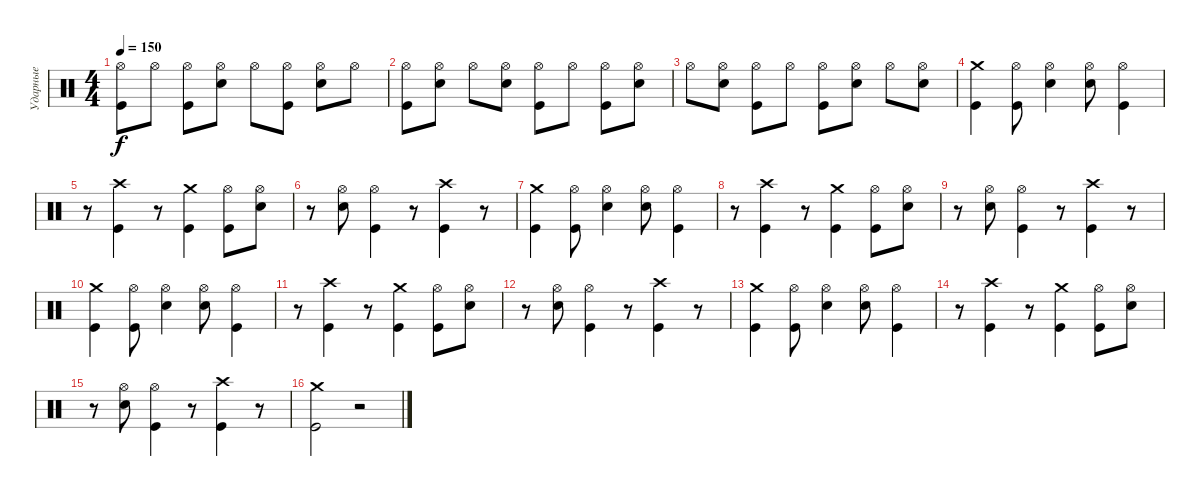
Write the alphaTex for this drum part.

\track ("Ударные" "Ударные") {instrument percussion}
\staff {score}
\articulation defaults
\ts (4 4)
\tempo 150
\clef neutral
\ks c
("Kick (hit)" "Hi-Hat (open)").8{dy f} "Hi-Hat (open)".8 ("Kick (hit)" "Hi-Hat (open)").8 ("Electric Snare (hit)" "Hi-Hat (open)").8 "Hi-Hat (open)".8 ("Kick (hit)" "Hi-Hat (open)").8 ("Electric Snare (hit)" "Hi-Hat (open)").8 "Hi-Hat (open)".8 |
("Kick (hit)" "Hi-Hat (open)").8 ("Electric Snare (hit)" "Hi-Hat (open)").8 "Hi-Hat (open)".8 ("Electric Snare (hit)" "Hi-Hat (open)").8 ("Kick (hit)" "Hi-Hat (open)").8 "Hi-Hat (open)".8 ("Kick (hit)" "Hi-Hat (open)").8 ("Electric Snare (hit)" "Hi-Hat (open)").8 |
"Hi-Hat (open)".8 ("Electric Snare (hit)" "Hi-Hat (open)").8 ("Kick (hit)" "Hi-Hat (open)").8 "Hi-Hat (open)".8 ("Kick (hit)" "Hi-Hat (open)").8 ("Electric Snare (hit)" "Hi-Hat (open)").8 "Hi-Hat (open)".8 ("Electric Snare (hit)" "Hi-Hat (open)").8 |
("Kick (hit)" "Crash medium (hit)").4 ("Kick (hit)" "Hi-Hat (open)").8 ("Electric Snare (hit)" "Hi-Hat (open)").4 ("Electric Snare (hit)" "Hi-Hat (open)").8 ("Kick (hit)" "Hi-Hat (open)").4 |
r.8 ("Kick (hit)" "Crash high (hit)").4 r.8 ("Kick (hit)" "Crash medium (hit)").4 ("Kick (hit)" "Hi-Hat (open)").8 ("Electric Snare (hit)" "Hi-Hat (open)").8 |
r.8 ("Electric Snare (hit)" "Hi-Hat (open)").8 ("Kick (hit)" "Hi-Hat (open)").4 r.8 ("Kick (hit)" "Crash high (hit)").4 r.8 |
("Kick (hit)" "Crash medium (hit)").4 ("Kick (hit)" "Hi-Hat (open)").8 ("Electric Snare (hit)" "Hi-Hat (open)").4 ("Electric Snare (hit)" "Hi-Hat (open)").8 ("Kick (hit)" "Hi-Hat (open)").4 |
r.8 ("Kick (hit)" "Crash high (hit)").4 r.8 ("Kick (hit)" "Crash medium (hit)").4 ("Kick (hit)" "Hi-Hat (open)").8 ("Electric Snare (hit)" "Hi-Hat (open)").8 |
r.8 ("Electric Snare (hit)" "Hi-Hat (open)").8 ("Kick (hit)" "Hi-Hat (open)").4 r.8 ("Kick (hit)" "Crash high (hit)").4 r.8 |
("Kick (hit)" "Crash medium (hit)").4 ("Kick (hit)" "Hi-Hat (open)").8 ("Electric Snare (hit)" "Hi-Hat (open)").4 ("Electric Snare (hit)" "Hi-Hat (open)").8 ("Kick (hit)" "Hi-Hat (open)").4 |
r.8 ("Kick (hit)" "Crash high (hit)").4 r.8 ("Kick (hit)" "Crash medium (hit)").4 ("Kick (hit)" "Hi-Hat (open)").8 ("Electric Snare (hit)" "Hi-Hat (open)").8 |
r.8 ("Electric Snare (hit)" "Hi-Hat (open)").8 ("Kick (hit)" "Hi-Hat (open)").4 r.8 ("Kick (hit)" "Crash high (hit)").4 r.8 |
("Kick (hit)" "Crash medium (hit)").4 ("Kick (hit)" "Hi-Hat (open)").8 ("Electric Snare (hit)" "Hi-Hat (open)").4 ("Electric Snare (hit)" "Hi-Hat (open)").8 ("Kick (hit)" "Hi-Hat (open)").4 |
r.8 ("Kick (hit)" "Crash high (hit)").4 r.8 ("Kick (hit)" "Crash medium (hit)").4 ("Kick (hit)" "Hi-Hat (open)").8 ("Electric Snare (hit)" "Hi-Hat (open)").8 |
r.8 ("Electric Snare (hit)" "Hi-Hat (open)").8 ("Kick (hit)" "Hi-Hat (open)").4 r.8 ("Kick (hit)" "Crash high (hit)").4 r.8 |
("Kick (hit)" "Crash medium (hit)").2 r.2
